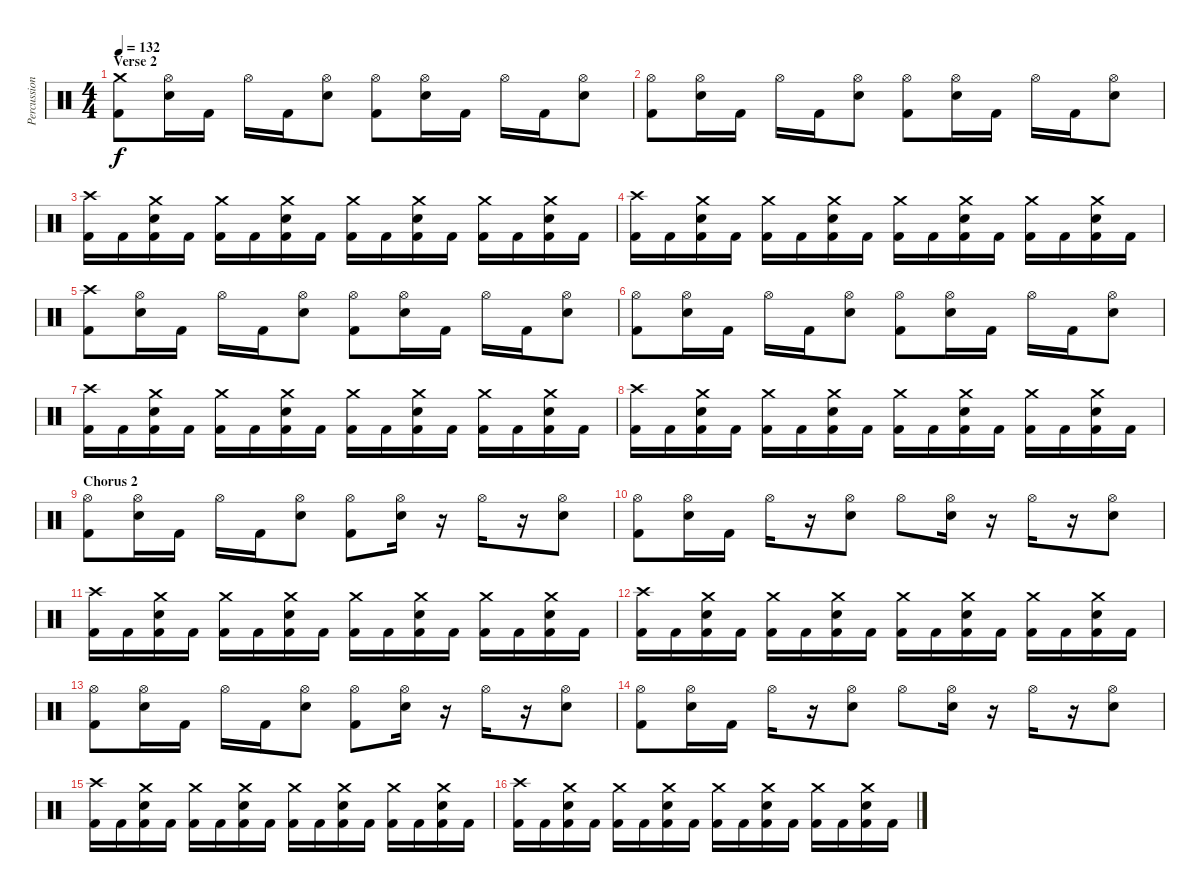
\track ("Percussion" "Percussion") {instrument percussion}
\staff {score}
\articulation defaults
\ts (4 4)
\section ("" "Verse 2")
\tempo 132
\clef neutral
\ks c
("Crash medium (hit)" "Kick (hit) 2").8{dy f} ("Hi-Hat (open)" "Electric Snare (hit)").16 "Kick (hit) 2".16 "Hi-Hat (open)".16 "Kick (hit) 2".16 ("Hi-Hat (open)" "Electric Snare (hit)").8 ("Hi-Hat (open)" "Kick (hit) 2").8 ("Hi-Hat (open)" "Electric Snare (hit)").16 "Kick (hit) 2".16 "Hi-Hat (open)".16 "Kick (hit) 2".16 ("Hi-Hat (open)" "Electric Snare (hit)").8 |
("Hi-Hat (open)" "Kick (hit) 2").8 ("Hi-Hat (open)" "Electric Snare (hit)").16 "Kick (hit) 2".16 "Hi-Hat (open)".16 "Kick (hit) 2".16 ("Hi-Hat (open)" "Electric Snare (hit)").8 ("Hi-Hat (open)" "Kick (hit) 2").8 ("Hi-Hat (open)" "Electric Snare (hit)").16 "Kick (hit) 2".16 "Hi-Hat (open)".16 "Kick (hit) 2".16 ("Hi-Hat (open)" "Electric Snare (hit)").8 |
("Crash high (hit)" "Kick (hit) 2").16 "Kick (hit) 2".16 ("Crash medium (hit)" "Electric Snare (hit)" "Kick (hit) 2").16 "Kick (hit) 2".16 ("Crash medium (hit)" "Kick (hit) 2").16 "Kick (hit) 2".16 ("Crash medium (hit)" "Electric Snare (hit)" "Kick (hit) 2").16 "Kick (hit) 2".16 ("Crash medium (hit)" "Kick (hit) 2").16 "Kick (hit) 2".16 ("Crash medium (hit)" "Electric Snare (hit)" "Kick (hit) 2").16 "Kick (hit) 2".16 ("Crash medium (hit)" "Kick (hit) 2").16 "Kick (hit) 2".16 ("Crash medium (hit)" "Electric Snare (hit)" "Kick (hit) 2").16 "Kick (hit) 2".16 |
("Crash high (hit)" "Kick (hit) 2").16 "Kick (hit) 2".16 ("Crash medium (hit)" "Electric Snare (hit)" "Kick (hit) 2").16 "Kick (hit) 2".16 ("Crash medium (hit)" "Kick (hit) 2").16 "Kick (hit) 2".16 ("Crash medium (hit)" "Electric Snare (hit)" "Kick (hit) 2").16 "Kick (hit) 2".16 ("Crash medium (hit)" "Kick (hit) 2").16 "Kick (hit) 2".16 ("Crash medium (hit)" "Electric Snare (hit)" "Kick (hit) 2").16 "Kick (hit) 2".16 ("Crash medium (hit)" "Kick (hit) 2").16 "Kick (hit) 2".16 ("Crash medium (hit)" "Electric Snare (hit)" "Kick (hit) 2").16 "Kick (hit) 2".16 |
("Crash high (hit)" "Kick (hit) 2").8 ("Hi-Hat (open)" "Electric Snare (hit)").16 "Kick (hit) 2".16 "Hi-Hat (open)".16 "Kick (hit) 2".16 ("Hi-Hat (open)" "Electric Snare (hit)").8 ("Hi-Hat (open)" "Kick (hit) 2").8 ("Hi-Hat (open)" "Electric Snare (hit)").16 "Kick (hit) 2".16 "Hi-Hat (open)".16 "Kick (hit) 2".16 ("Hi-Hat (open)" "Electric Snare (hit)").8 |
("Hi-Hat (open)" "Kick (hit) 2").8 ("Hi-Hat (open)" "Electric Snare (hit)").16 "Kick (hit) 2".16 "Hi-Hat (open)".16 "Kick (hit) 2".16 ("Hi-Hat (open)" "Electric Snare (hit)").8 ("Hi-Hat (open)" "Kick (hit) 2").8 ("Hi-Hat (open)" "Electric Snare (hit)").16 "Kick (hit) 2".16 "Hi-Hat (open)".16 "Kick (hit) 2".16 ("Hi-Hat (open)" "Electric Snare (hit)").8 |
("Crash high (hit)" "Kick (hit) 2").16 "Kick (hit) 2".16 ("Crash medium (hit)" "Electric Snare (hit)" "Kick (hit) 2").16 "Kick (hit) 2".16 ("Crash medium (hit)" "Kick (hit) 2").16 "Kick (hit) 2".16 ("Crash medium (hit)" "Electric Snare (hit)" "Kick (hit) 2").16 "Kick (hit) 2".16 ("Crash medium (hit)" "Kick (hit) 2").16 "Kick (hit) 2".16 ("Crash medium (hit)" "Electric Snare (hit)" "Kick (hit) 2").16 "Kick (hit) 2".16 ("Crash medium (hit)" "Kick (hit) 2").16 "Kick (hit) 2".16 ("Crash medium (hit)" "Electric Snare (hit)" "Kick (hit) 2").16 "Kick (hit) 2".16 |
("Crash high (hit)" "Kick (hit) 2").16 "Kick (hit) 2".16 ("Crash medium (hit)" "Electric Snare (hit)" "Kick (hit) 2").16 "Kick (hit) 2".16 ("Crash medium (hit)" "Kick (hit) 2").16 "Kick (hit) 2".16 ("Crash medium (hit)" "Electric Snare (hit)" "Kick (hit) 2").16 "Kick (hit) 2".16 ("Crash medium (hit)" "Kick (hit) 2").16 "Kick (hit) 2".16 ("Crash medium (hit)" "Electric Snare (hit)" "Kick (hit) 2").16 "Kick (hit) 2".16 ("Crash medium (hit)" "Kick (hit) 2").16 "Kick (hit) 2".16 ("Crash medium (hit)" "Electric Snare (hit)" "Kick (hit) 2").16 "Kick (hit) 2".16 |
\section ("" "Chorus 2")
("Hi-Hat (open)" "Kick (hit) 2").8 ("Hi-Hat (open)" "Electric Snare (hit)").16 "Kick (hit) 2".16 "Hi-Hat (open)".16 "Kick (hit) 2".16 ("Hi-Hat (open)" "Electric Snare (hit)").8 ("Hi-Hat (open)" "Kick (hit) 2").8 ("Hi-Hat (open)" "Electric Snare (hit)").16 r.16 "Hi-Hat (open)".16 r.16 ("Hi-Hat (open)" "Electric Snare (hit)").8 |
("Hi-Hat (open)" "Kick (hit) 2").8 ("Hi-Hat (open)" "Electric Snare (hit)").16 "Kick (hit) 2".16 "Hi-Hat (open)".16 r.16 ("Hi-Hat (open)" "Electric Snare (hit)").8 "Hi-Hat (open)".8 ("Hi-Hat (open)" "Electric Snare (hit)").16 r.16 "Hi-Hat (open)".16 r.16 ("Hi-Hat (open)" "Electric Snare (hit)").8 |
("Crash high (hit)" "Kick (hit) 2").16 "Kick (hit) 2".16 ("Crash medium (hit)" "Electric Snare (hit)" "Kick (hit) 2").16 "Kick (hit) 2".16 ("Crash medium (hit)" "Kick (hit) 2").16 "Kick (hit) 2".16 ("Crash medium (hit)" "Electric Snare (hit)" "Kick (hit) 2").16 "Kick (hit) 2".16 ("Crash medium (hit)" "Kick (hit) 2").16 "Kick (hit) 2".16 ("Crash medium (hit)" "Electric Snare (hit)" "Kick (hit) 2").16 "Kick (hit) 2".16 ("Crash medium (hit)" "Kick (hit) 2").16 "Kick (hit) 2".16 ("Crash medium (hit)" "Electric Snare (hit)" "Kick (hit) 2").16 "Kick (hit) 2".16 |
("Crash high (hit)" "Kick (hit) 2").16 "Kick (hit) 2".16 ("Crash medium (hit)" "Electric Snare (hit)" "Kick (hit) 2").16 "Kick (hit) 2".16 ("Crash medium (hit)" "Kick (hit) 2").16 "Kick (hit) 2".16 ("Crash medium (hit)" "Electric Snare (hit)" "Kick (hit) 2").16 "Kick (hit) 2".16 ("Crash medium (hit)" "Kick (hit) 2").16 "Kick (hit) 2".16 ("Crash medium (hit)" "Electric Snare (hit)" "Kick (hit) 2").16 "Kick (hit) 2".16 ("Crash medium (hit)" "Kick (hit) 2").16 "Kick (hit) 2".16 ("Crash medium (hit)" "Electric Snare (hit)" "Kick (hit) 2").16 "Kick (hit) 2".16 |
("Hi-Hat (open)" "Kick (hit) 2").8 ("Hi-Hat (open)" "Electric Snare (hit)").16 "Kick (hit) 2".16 "Hi-Hat (open)".16 "Kick (hit) 2".16 ("Hi-Hat (open)" "Electric Snare (hit)").8 ("Hi-Hat (open)" "Kick (hit) 2").8 ("Hi-Hat (open)" "Electric Snare (hit)").16 r.16 "Hi-Hat (open)".16 r.16 ("Hi-Hat (open)" "Electric Snare (hit)").8 |
("Hi-Hat (open)" "Kick (hit) 2").8 ("Hi-Hat (open)" "Electric Snare (hit)").16 "Kick (hit) 2".16 "Hi-Hat (open)".16 r.16 ("Hi-Hat (open)" "Electric Snare (hit)").8 "Hi-Hat (open)".8 ("Hi-Hat (open)" "Electric Snare (hit)").16 r.16 "Hi-Hat (open)".16 r.16 ("Hi-Hat (open)" "Electric Snare (hit)").8 |
("Crash high (hit)" "Kick (hit) 2").16 "Kick (hit) 2".16 ("Crash medium (hit)" "Electric Snare (hit)" "Kick (hit) 2").16 "Kick (hit) 2".16 ("Crash medium (hit)" "Kick (hit) 2").16 "Kick (hit) 2".16 ("Crash medium (hit)" "Electric Snare (hit)" "Kick (hit) 2").16 "Kick (hit) 2".16 ("Crash medium (hit)" "Kick (hit) 2").16 "Kick (hit) 2".16 ("Crash medium (hit)" "Electric Snare (hit)" "Kick (hit) 2").16 "Kick (hit) 2".16 ("Crash medium (hit)" "Kick (hit) 2").16 "Kick (hit) 2".16 ("Crash medium (hit)" "Electric Snare (hit)" "Kick (hit) 2").16 "Kick (hit) 2".16 |
("Crash high (hit)" "Kick (hit) 2").16 "Kick (hit) 2".16 ("Crash medium (hit)" "Electric Snare (hit)" "Kick (hit) 2").16 "Kick (hit) 2".16 ("Crash medium (hit)" "Kick (hit) 2").16 "Kick (hit) 2".16 ("Crash medium (hit)" "Electric Snare (hit)" "Kick (hit) 2").16 "Kick (hit) 2".16 ("Crash medium (hit)" "Kick (hit) 2").16 "Kick (hit) 2".16 ("Crash medium (hit)" "Electric Snare (hit)" "Kick (hit) 2").16 "Kick (hit) 2".16 ("Crash medium (hit)" "Kick (hit) 2").16 "Kick (hit) 2".16 ("Crash medium (hit)" "Electric Snare (hit)" "Kick (hit) 2").16 "Kick (hit) 2".16
